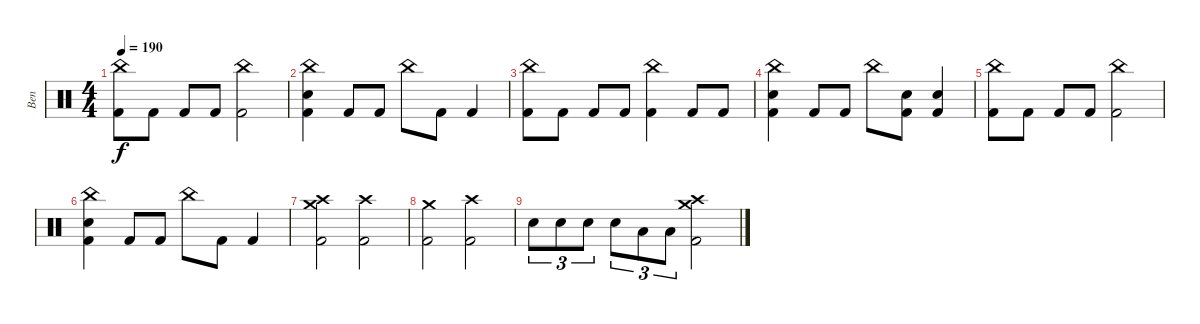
\track ("Ben" "Ben") {instrument percussion}
\staff {score}
\articulation defaults
\ts (4 4)
\tempo 190
\clef neutral
\ks c
("China (hit)" "Kick (hit) 2").8{dy f} "Kick (hit) 2".8 "Kick (hit) 2".8 "Kick (hit) 2".8 ("China (hit)" "Kick (hit) 2").2 |
("China (hit)" "Snare (hit) 2" "Kick (hit) 2").4 "Kick (hit) 2".8 "Kick (hit) 2".8 "China (hit)".8 "Kick (hit) 2".8 "Kick (hit) 2".4 |
("China (hit)" "Kick (hit) 2").8 "Kick (hit) 2".8 "Kick (hit) 2".8 "Kick (hit) 2".8 ("China (hit)" "Kick (hit) 2").4 "Kick (hit) 2".8 "Kick (hit) 2".8 |
("China (hit)" "Snare (hit) 2" "Kick (hit) 2").4 "Kick (hit) 2".8 "Kick (hit) 2".8 "China (hit)".8 ("Snare (hit) 2" "Kick (hit) 2").8 ("Snare (hit) 2" "Kick (hit) 2").4 |
("China (hit)" "Kick (hit) 2").8 "Kick (hit) 2".8 "Kick (hit) 2".8 "Kick (hit) 2".8 ("China (hit)" "Kick (hit) 2").2 |
("China (hit)" "Snare (hit) 2" "Kick (hit) 2").4 "Kick (hit) 2".8 "Kick (hit) 2".8 "China (hit)".8 "Kick (hit) 2".8 "Kick (hit) 2".4 |
("Crash high (hit)" "Crash medium (hit)" "Kick (hit) 2").2 ("Crash high (hit)" "Kick (hit) 2").2 |
("Crash medium (hit)" "Kick (hit) 2").2 ("Crash high (hit)" "Kick (hit) 2").2 |
"Snare (hit) 2".8{tu (3 2)} "Snare (hit) 2".8{tu (3 2)} "Snare (hit) 2".8{tu (3 2)} "Snare (hit) 2".8{tu (3 2)} "Low Tom (hit)".8{tu (3 2)} "Low Tom (hit)".8{tu (3 2)} ("Crash high (hit)" "Crash medium (hit)" "Kick (hit) 2").2
